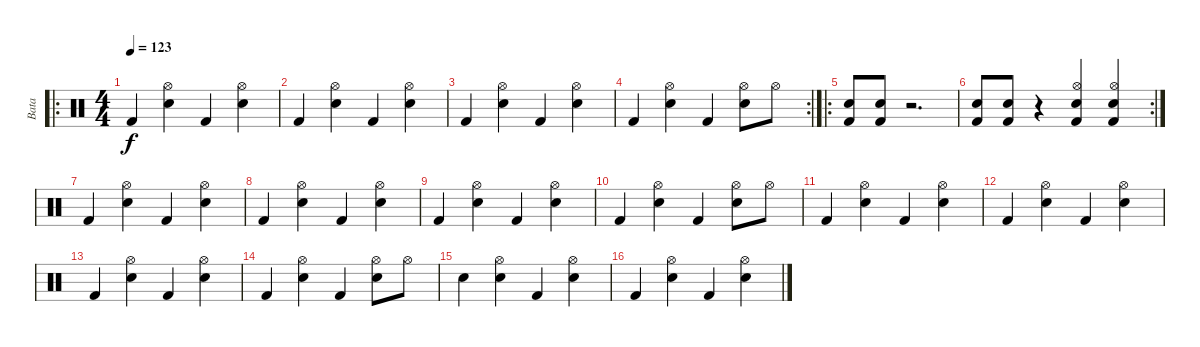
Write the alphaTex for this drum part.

\track ("Bata" "Bata") {instrument percussion}
\staff {score}
\articulation defaults
\ro
\ts (4 4)
\tempo 123
\clef neutral
\ks c "Kick (hit) 2".4{dy f}
("Hi-Hat (open)" "Snare (hit) 2").4 "Kick (hit) 2".4 ("Hi-Hat (open)" "Snare (hit) 2").4 |
"Kick (hit) 2".4 ("Hi-Hat (open)" "Snare (hit) 2").4 "Kick (hit) 2".4 ("Hi-Hat (open)" "Snare (hit) 2").4 |
"Kick (hit) 2".4 ("Hi-Hat (open)" "Snare (hit) 2").4 "Kick (hit) 2".4 ("Hi-Hat (open)" "Snare (hit) 2").4 |
\rc 2 "Kick (hit) 2".4
("Hi-Hat (open)" "Snare (hit) 2").4 "Kick (hit) 2".4 ("Hi-Hat (open)" "Snare (hit) 2").8 "Hi-Hat (open)".8 |
\ro
("Kick (hit) 2" "Snare (hit) 2").8 ("Kick (hit) 2" "Snare (hit) 2").8 r.2{d} |
\rc 2
("Kick (hit) 2" "Snare (hit) 2").8 ("Kick (hit) 2" "Snare (hit) 2").8 r.4 ("Hi-Hat (open)" "Kick (hit) 2" "Snare (hit) 2").4 ("Hi-Hat (open)" "Kick (hit) 2" "Snare (hit) 2").4 |
"Kick (hit) 2".4 ("Hi-Hat (open)" "Snare (hit) 2").4 "Kick (hit) 2".4 ("Hi-Hat (open)" "Snare (hit) 2").4 |
"Kick (hit) 2".4 ("Hi-Hat (open)" "Snare (hit) 2").4 "Kick (hit) 2".4 ("Hi-Hat (open)" "Snare (hit) 2").4 |
"Kick (hit) 2".4 ("Hi-Hat (open)" "Snare (hit) 2").4 "Kick (hit) 2".4 ("Hi-Hat (open)" "Snare (hit) 2").4 |
"Kick (hit) 2".4 ("Hi-Hat (open)" "Snare (hit) 2").4 "Kick (hit) 2".4 ("Hi-Hat (open)" "Snare (hit) 2").8 "Hi-Hat (open)".8 |
"Kick (hit) 2".4 ("Hi-Hat (open)" "Snare (hit) 2").4 "Kick (hit) 2".4 ("Hi-Hat (open)" "Snare (hit) 2").4 |
"Kick (hit) 2".4 ("Hi-Hat (open)" "Snare (hit) 2").4 "Kick (hit) 2".4 ("Hi-Hat (open)" "Snare (hit) 2").4 |
"Kick (hit) 2".4 ("Hi-Hat (open)" "Snare (hit) 2").4 "Kick (hit) 2".4 ("Hi-Hat (open)" "Snare (hit) 2").4 |
"Kick (hit) 2".4 ("Hi-Hat (open)" "Snare (hit) 2").4 "Kick (hit) 2".4 ("Hi-Hat (open)" "Snare (hit) 2").8 "Hi-Hat (open)".8 |
"Snare (hit) 2".4 ("Hi-Hat (open)" "Snare (hit) 2").4 "Kick (hit) 2".4 ("Hi-Hat (open)" "Snare (hit) 2").4 |
"Kick (hit) 2".4 ("Hi-Hat (open)" "Snare (hit) 2").4 "Kick (hit) 2".4 ("Hi-Hat (open)" "Snare (hit) 2").4
